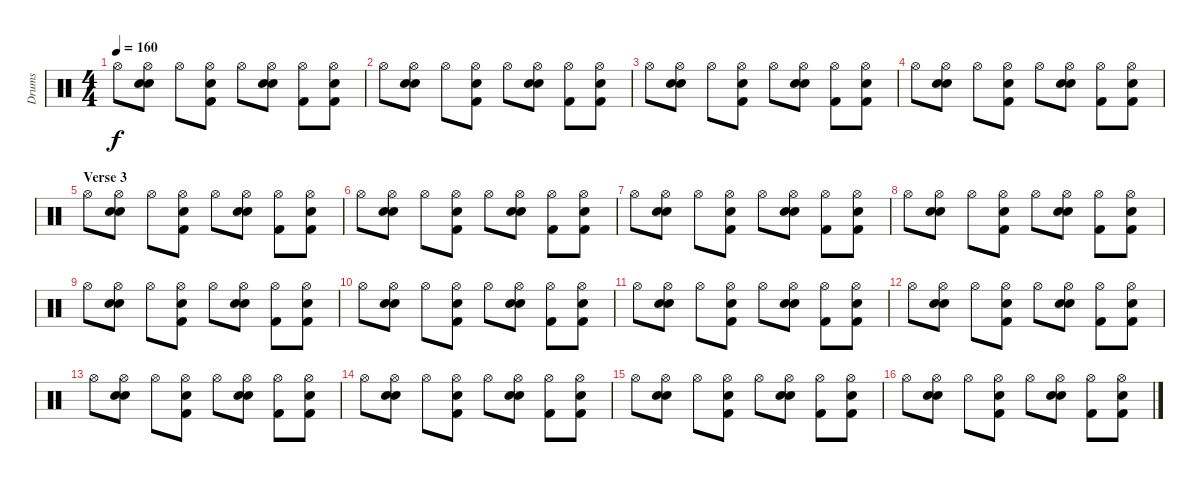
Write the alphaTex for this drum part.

\track ("Drums" "Drums") {instrument percussion}
\staff {score}
\articulation defaults
\ts (4 4)
\tempo 160
\clef neutral
\ks c "Hi-Hat (open)".8{dy f}
("Snare (hit) 2" "Hi-Hat (open)" "Hand Clap (hit)").8 "Hi-Hat (open)".8 ("Kick (hit) 2" "Hi-Hat (open)" "Hand Clap (hit)").8 "Hi-Hat (open)".8 ("Snare (hit) 2" "Hi-Hat (open)" "Hand Clap (hit)").8 ("Kick (hit) 2" "Hi-Hat (open)").8 ("Kick (hit) 2" "Hi-Hat (open)" "Hand Clap (hit)").8 |
"Hi-Hat (open)".8 ("Snare (hit) 2" "Hi-Hat (open)" "Hand Clap (hit)").8 "Hi-Hat (open)".8 ("Kick (hit) 2" "Hi-Hat (open)" "Hand Clap (hit)").8 "Hi-Hat (open)".8 ("Snare (hit) 2" "Hi-Hat (open)" "Hand Clap (hit)").8 ("Kick (hit) 2" "Hi-Hat (open)").8 ("Kick (hit) 2" "Hi-Hat (open)" "Hand Clap (hit)").8 |
"Hi-Hat (open)".8 ("Snare (hit) 2" "Hi-Hat (open)" "Hand Clap (hit)").8 "Hi-Hat (open)".8 ("Kick (hit) 2" "Hi-Hat (open)" "Hand Clap (hit)").8 "Hi-Hat (open)".8 ("Snare (hit) 2" "Hi-Hat (open)" "Hand Clap (hit)").8 ("Kick (hit) 2" "Hi-Hat (open)").8 ("Kick (hit) 2" "Hi-Hat (open)" "Hand Clap (hit)").8 |
"Hi-Hat (open)".8 ("Snare (hit) 2" "Hi-Hat (open)" "Hand Clap (hit)").8 "Hi-Hat (open)".8 ("Kick (hit) 2" "Hi-Hat (open)" "Hand Clap (hit)").8 "Hi-Hat (open)".8 ("Snare (hit) 2" "Hi-Hat (open)" "Hand Clap (hit)").8 ("Kick (hit) 2" "Hi-Hat (open)").8 ("Kick (hit) 2" "Hi-Hat (open)" "Hand Clap (hit)").8 |
\section ("" "Verse 3")
"Hi-Hat (open)".8 ("Snare (hit) 2" "Hi-Hat (open)" "Hand Clap (hit)").8 "Hi-Hat (open)".8 ("Kick (hit) 2" "Hi-Hat (open)" "Hand Clap (hit)").8 "Hi-Hat (open)".8 ("Snare (hit) 2" "Hi-Hat (open)" "Hand Clap (hit)").8 ("Kick (hit) 2" "Hi-Hat (open)").8 ("Kick (hit) 2" "Hi-Hat (open)" "Hand Clap (hit)").8 |
"Hi-Hat (open)".8 ("Snare (hit) 2" "Hi-Hat (open)" "Hand Clap (hit)").8 "Hi-Hat (open)".8 ("Kick (hit) 2" "Hi-Hat (open)" "Hand Clap (hit)").8 "Hi-Hat (open)".8 ("Snare (hit) 2" "Hi-Hat (open)" "Hand Clap (hit)").8 ("Kick (hit) 2" "Hi-Hat (open)").8 ("Kick (hit) 2" "Hi-Hat (open)" "Hand Clap (hit)").8 |
"Hi-Hat (open)".8 ("Snare (hit) 2" "Hi-Hat (open)" "Hand Clap (hit)").8 "Hi-Hat (open)".8 ("Kick (hit) 2" "Hi-Hat (open)" "Hand Clap (hit)").8 "Hi-Hat (open)".8 ("Snare (hit) 2" "Hi-Hat (open)" "Hand Clap (hit)").8 ("Kick (hit) 2" "Hi-Hat (open)").8 ("Kick (hit) 2" "Hi-Hat (open)" "Hand Clap (hit)").8 |
"Hi-Hat (open)".8 ("Snare (hit) 2" "Hi-Hat (open)" "Hand Clap (hit)").8 "Hi-Hat (open)".8 ("Kick (hit) 2" "Hi-Hat (open)" "Hand Clap (hit)").8 "Hi-Hat (open)".8 ("Snare (hit) 2" "Hi-Hat (open)" "Hand Clap (hit)").8 ("Kick (hit) 2" "Hi-Hat (open)").8 ("Kick (hit) 2" "Hi-Hat (open)" "Hand Clap (hit)").8 |
"Hi-Hat (open)".8 ("Snare (hit) 2" "Hi-Hat (open)" "Hand Clap (hit)").8 "Hi-Hat (open)".8 ("Kick (hit) 2" "Hi-Hat (open)" "Hand Clap (hit)").8 "Hi-Hat (open)".8 ("Snare (hit) 2" "Hi-Hat (open)" "Hand Clap (hit)").8 ("Kick (hit) 2" "Hi-Hat (open)").8 ("Kick (hit) 2" "Hi-Hat (open)" "Hand Clap (hit)").8 |
"Hi-Hat (open)".8 ("Snare (hit) 2" "Hi-Hat (open)" "Hand Clap (hit)").8 "Hi-Hat (open)".8 ("Kick (hit) 2" "Hi-Hat (open)" "Hand Clap (hit)").8 "Hi-Hat (open)".8 ("Snare (hit) 2" "Hi-Hat (open)" "Hand Clap (hit)").8 ("Kick (hit) 2" "Hi-Hat (open)").8 ("Kick (hit) 2" "Hi-Hat (open)" "Hand Clap (hit)").8 |
"Hi-Hat (open)".8 ("Snare (hit) 2" "Hi-Hat (open)" "Hand Clap (hit)").8 "Hi-Hat (open)".8 ("Kick (hit) 2" "Hi-Hat (open)" "Hand Clap (hit)").8 "Hi-Hat (open)".8 ("Snare (hit) 2" "Hi-Hat (open)" "Hand Clap (hit)").8 ("Kick (hit) 2" "Hi-Hat (open)").8 ("Kick (hit) 2" "Hi-Hat (open)" "Hand Clap (hit)").8 |
"Hi-Hat (open)".8 ("Snare (hit) 2" "Hi-Hat (open)" "Hand Clap (hit)").8 "Hi-Hat (open)".8 ("Kick (hit) 2" "Hi-Hat (open)" "Hand Clap (hit)").8 "Hi-Hat (open)".8 ("Snare (hit) 2" "Hi-Hat (open)" "Hand Clap (hit)").8 ("Kick (hit) 2" "Hi-Hat (open)").8 ("Kick (hit) 2" "Hi-Hat (open)" "Hand Clap (hit)").8 |
"Hi-Hat (open)".8 ("Snare (hit) 2" "Hi-Hat (open)" "Hand Clap (hit)").8 "Hi-Hat (open)".8 ("Kick (hit) 2" "Hi-Hat (open)" "Hand Clap (hit)").8 "Hi-Hat (open)".8 ("Snare (hit) 2" "Hi-Hat (open)" "Hand Clap (hit)").8 ("Kick (hit) 2" "Hi-Hat (open)").8 ("Kick (hit) 2" "Hi-Hat (open)" "Hand Clap (hit)").8 |
"Hi-Hat (open)".8 ("Snare (hit) 2" "Hi-Hat (open)" "Hand Clap (hit)").8 "Hi-Hat (open)".8 ("Kick (hit) 2" "Hi-Hat (open)" "Hand Clap (hit)").8 "Hi-Hat (open)".8 ("Snare (hit) 2" "Hi-Hat (open)" "Hand Clap (hit)").8 ("Kick (hit) 2" "Hi-Hat (open)").8 ("Kick (hit) 2" "Hi-Hat (open)" "Hand Clap (hit)").8 |
"Hi-Hat (open)".8 ("Snare (hit) 2" "Hi-Hat (open)" "Hand Clap (hit)").8 "Hi-Hat (open)".8 ("Kick (hit) 2" "Hi-Hat (open)" "Hand Clap (hit)").8 "Hi-Hat (open)".8 ("Snare (hit) 2" "Hi-Hat (open)" "Hand Clap (hit)").8 ("Kick (hit) 2" "Hi-Hat (open)").8 ("Kick (hit) 2" "Hi-Hat (open)" "Hand Clap (hit)").8 |
"Hi-Hat (open)".8 ("Snare (hit) 2" "Hi-Hat (open)" "Hand Clap (hit)").8 "Hi-Hat (open)".8 ("Kick (hit) 2" "Hi-Hat (open)" "Hand Clap (hit)").8 "Hi-Hat (open)".8 ("Snare (hit) 2" "Hi-Hat (open)" "Hand Clap (hit)").8 ("Kick (hit) 2" "Hi-Hat (open)").8 ("Kick (hit) 2" "Hi-Hat (open)" "Hand Clap (hit)").8
